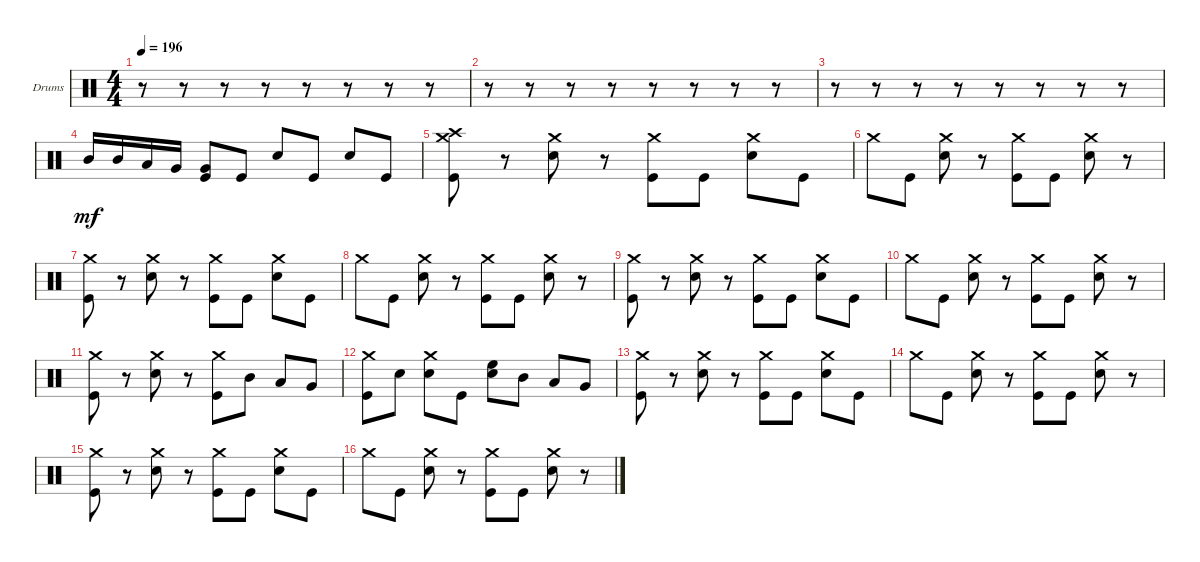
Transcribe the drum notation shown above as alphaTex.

\defaultSystemsLayout 4
\bracketExtendMode groupsimilarinstruments
\firstSystemTrackNameOrientation horizontal
\otherSystemsTrackNameOrientation horizontal
\track ("Drumkit" "Drums") {instrument percussion}
\staff {score}
\articulation defaults
\ts (4 4)
\tempo 196
\clef neutral
\ks c
r.8{dy mf} r.8 r.8 r.8 r.8 r.8 r.8 r.8 |
r.8 r.8 r.8 r.8 r.8 r.8 r.8 r.8 |
r.8 r.8 r.8 r.8 r.8 r.8 r.8 r.8 |
"Mid Tom (hit)".16 "Mid Tom (hit)".16 "Low Tom (hit)".16 "Very Low Tom (hit)".16 ("Kick (hit)" "Very Low Tom (hit)").8 "Kick (hit)".8 "Snare (hit) 2".8 "Kick (hit)".8 "Snare (hit) 2".8 "Kick (hit)".8 |
("Kick (hit)" "Crash medium (hit)" "Crash high (hit)").8 r.8 ("Snare (hit) 2" "Crash medium (hit)").8 r.8 ("Kick (hit)" "Crash medium (hit)").8 "Kick (hit)".8 ("Snare (hit) 2" "Crash medium (hit)").8 "Kick (hit)".8 |
"Crash medium (hit)".8 "Kick (hit)".8 ("Snare (hit) 2" "Crash medium (hit)").8 r.8 ("Kick (hit)" "Crash medium (hit)").8 "Kick (hit)".8 ("Snare (hit) 2" "Crash medium (hit)").8 r.8 |
("Kick (hit)" "Crash medium (hit)").8 r.8 ("Snare (hit) 2" "Crash medium (hit)").8 r.8 ("Kick (hit)" "Crash medium (hit)").8 "Kick (hit)".8 ("Snare (hit) 2" "Crash medium (hit)").8 "Kick (hit)".8 |
"Crash medium (hit)".8 "Kick (hit)".8 ("Snare (hit) 2" "Crash medium (hit)").8 r.8 ("Kick (hit)" "Crash medium (hit)").8 "Kick (hit)".8 ("Snare (hit) 2" "Crash medium (hit)").8 r.8 |
("Kick (hit)" "Crash medium (hit)").8 r.8 ("Snare (hit) 2" "Crash medium (hit)").8 r.8 ("Kick (hit)" "Crash medium (hit)").8 "Kick (hit)".8 ("Snare (hit) 2" "Crash medium (hit)").8 "Kick (hit)".8 |
"Crash medium (hit)".8 "Kick (hit)".8 ("Snare (hit) 2" "Crash medium (hit)").8 r.8 ("Kick (hit)" "Crash medium (hit)").8 "Kick (hit)".8 ("Snare (hit) 2" "Crash medium (hit)").8 r.8 |
("Kick (hit)" "Crash medium (hit)").8 r.8 ("Snare (hit) 2" "Crash medium (hit)").8 r.8 ("Kick (hit)" "Crash medium (hit)").8 "Mid Tom (hit)".8 "Low Tom (hit)".8 "Very Low Tom (hit)".8 |
("Crash medium (hit)" "Kick (hit)").8 "Snare (hit) 2".8 ("Snare (hit) 2" "Crash medium (hit)").8 "Kick (hit)".8 ("Snare (hit) 2" "High Floor Tom (hit)").8 "Mid Tom (hit)".8 "Low Tom (hit)".8 "Very Low Tom (hit)".8 |
("Kick (hit)" "Crash medium (hit)").8 r.8 ("Snare (hit) 2" "Crash medium (hit)").8 r.8 ("Kick (hit)" "Crash medium (hit)").8 "Kick (hit)".8 ("Snare (hit) 2" "Crash medium (hit)").8 "Kick (hit)".8 |
"Crash medium (hit)".8 "Kick (hit)".8 ("Snare (hit) 2" "Crash medium (hit)").8 r.8 ("Kick (hit)" "Crash medium (hit)").8 "Kick (hit)".8 ("Snare (hit) 2" "Crash medium (hit)").8 r.8 |
("Kick (hit)" "Crash medium (hit)").8 r.8 ("Snare (hit) 2" "Crash medium (hit)").8 r.8 ("Kick (hit)" "Crash medium (hit)").8 "Kick (hit)".8 ("Snare (hit) 2" "Crash medium (hit)").8 "Kick (hit)".8 |
"Crash medium (hit)".8 "Kick (hit)".8 ("Snare (hit) 2" "Crash medium (hit)").8 r.8 ("Kick (hit)" "Crash medium (hit)").8 "Kick (hit)".8 ("Snare (hit) 2" "Crash medium (hit)").8 r.8
